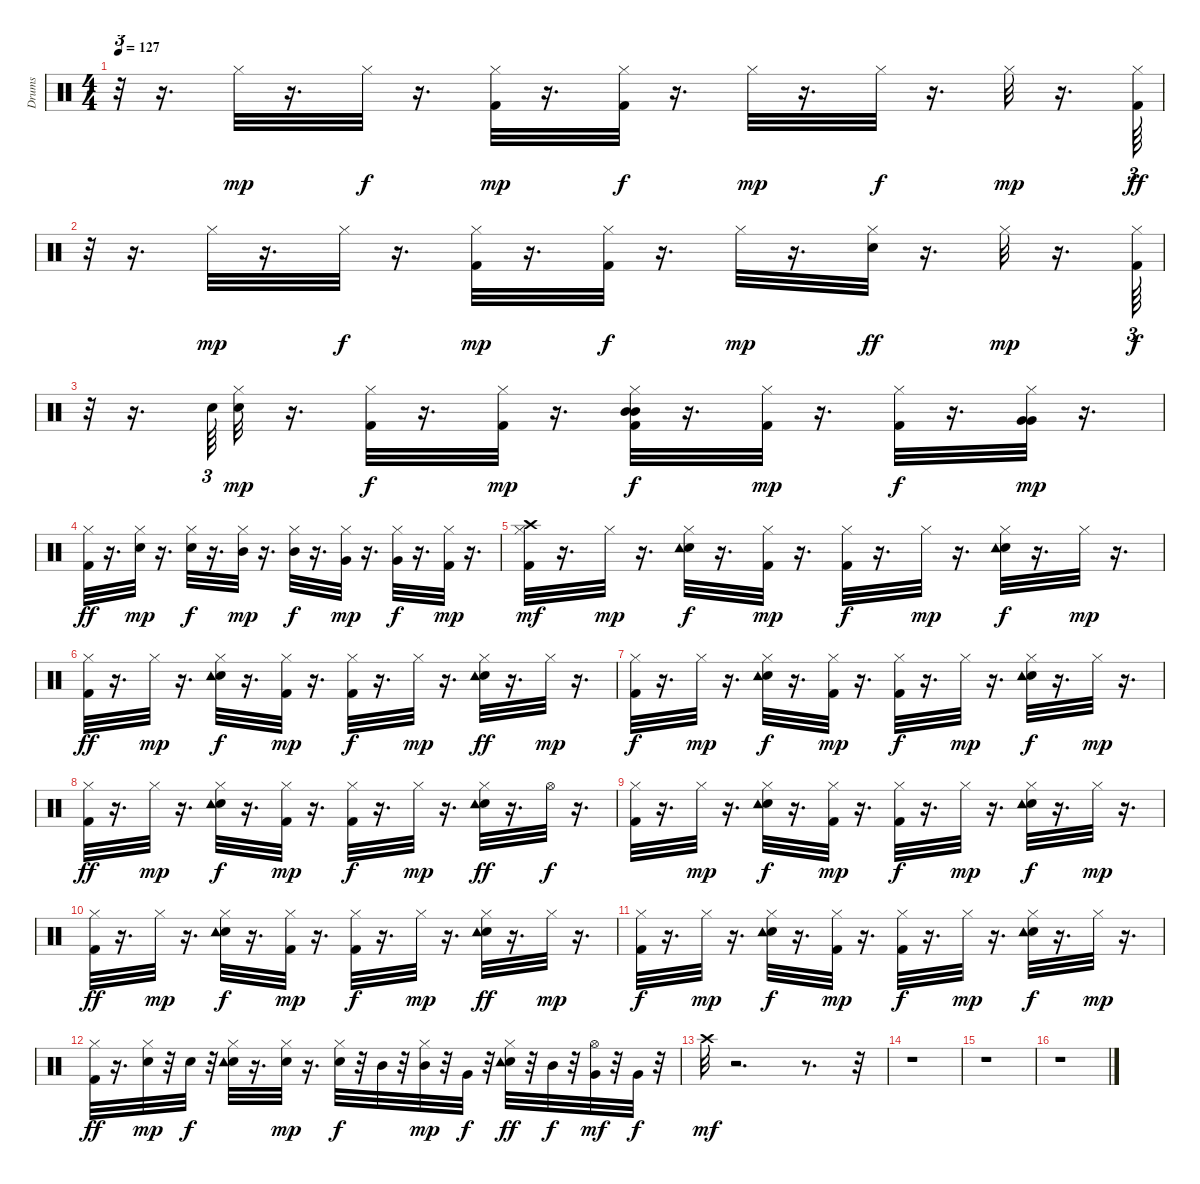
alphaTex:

\track ("Drums               " "Drums     ") {instrument percussion}
\staff {score}
\articulation defaults
\ts (4 4)
\tempo 127
\clef neutral
\ks c
r.32{tu (3 2) dy f} r.16{d} "Hi-Hat (closed)".32{dy mp} r.16{d} "Hi-Hat (closed)".32{dy f} r.16{d} ("Kick (hit) 2" "Hi-Hat (closed)").32{dy mp} r.16{d} ("Kick (hit) 2" "Hi-Hat (closed)").32{dy f} r.16{d} "Hi-Hat (closed)".32{dy mp} r.16{d} "Hi-Hat (closed)".32{dy f} r.16{d} "Hi-Hat (closed)".32{dy mp} r.16{d} ("Kick (hit) 2" "Hi-Hat (closed)").64{tu (3 2) dy ff} |
r.32{tu (3 2)} r.16{d} "Hi-Hat (closed)".32{dy mp} r.16{d} "Hi-Hat (closed)".32{dy f} r.16{d} ("Kick (hit) 2" "Hi-Hat (closed)").32{dy mp} r.16{d} ("Kick (hit) 2" "Hi-Hat (closed)").32{dy f} r.16{d} "Hi-Hat (closed)".32{dy mp} r.16{d} ("Snare (hit) 2" "Hi-Hat (closed)").32{dy ff} r.16{d} "Hi-Hat (closed)".32{dy mp} r.16{d} ("Kick (hit) 2" "Hi-Hat (closed)").64{tu (3 2) dy f} |
r.32{tu (3 2)} r.16{d} "Snare (hit) 2".64{tu (3 2)} ("Snare (hit) 2" "Hi-Hat (closed)").32{dy mp} r.16{d} ("Hi-Hat (closed)" "Kick (hit) 2").32{dy f} r.16{d} ("Kick (hit) 2" "Hi-Hat (closed)").32{dy mp} r.16{d} ("Kick (hit) 2" "Mid Tom (hit)" "Hi-Hat (closed)" "Mid Tom (hit)").32{dy f} r.16{d} ("Kick (hit) 2" "Hi-Hat (closed)").32{dy mp} r.16{d} ("Kick (hit) 2" "Hi-Hat (closed)").32{dy f} r.16{d} ("Very Low Tom (hit)" "Hi-Hat (closed)" "Very Low Tom (hit)").32{dy mp} r.16{d} |
("Kick (hit) 2" "Hi-Hat (closed)").32{dy ff} r.16{d} ("Snare (hit) 2" "Hi-Hat (closed)").32{dy mp} r.16{d} ("Snare (hit) 2" "Hi-Hat (closed)").32{dy f} r.16{d} ("Mid Tom (hit)" "Hi-Hat (closed)").32{dy mp} r.16{d} ("Hi-Hat (closed)" "Mid Tom (hit)").32{dy f} r.16{d} ("Hi-Hat (closed)" "Very Low Tom (hit)").32{dy mp} r.16{d} ("Very Low Tom (hit)" "Hi-Hat (closed)").32{dy f} r.16{d} ("Kick (hit) 2" "Hi-Hat (closed)").32{dy mp} r.16{d} |
("Kick (hit) 2" "Hi-Hat (closed)" "Crash high (hit)").32{dy mf} r.16{d} "Hi-Hat (closed)".32{dy mp} r.16{d} ("Snare (hit) 2" "Tambourine (hit)" "Hi-Hat (closed)").32{dy f} r.16{d} ("Kick (hit) 2" "Hi-Hat (closed)").32{dy mp} r.16{d} ("Kick (hit) 2" "Hi-Hat (closed)").32{dy f} r.16{d} "Hi-Hat (closed)".32{dy mp} r.16{d} ("Snare (hit) 2" "Tambourine (hit)" "Hi-Hat (closed)").32{dy f} r.16{d} "Hi-Hat (closed)".32{dy mp} r.16{d} |
("Hi-Hat (closed)" "Kick (hit) 2").32{dy ff} r.16{d} "Hi-Hat (closed)".32{dy mp} r.16{d} ("Snare (hit) 2" "Tambourine (hit)" "Hi-Hat (closed)").32{dy f} r.16{d} ("Kick (hit) 2" "Hi-Hat (closed)").32{dy mp} r.16{d} ("Kick (hit) 2" "Hi-Hat (closed)").32{dy f} r.16{d} "Hi-Hat (closed)".32{dy mp} r.16{d} ("Snare (hit) 2" "Tambourine (hit)" "Hi-Hat (closed)").32{dy ff} r.16{d} "Hi-Hat (closed)".32{dy mp} r.16{d} |
("Kick (hit) 2" "Hi-Hat (closed)").32{dy f} r.16{d} "Hi-Hat (closed)".32{dy mp} r.16{d} ("Snare (hit) 2" "Hi-Hat (closed)" "Tambourine (hit)").32{dy f} r.16{d} ("Hi-Hat (closed)" "Kick (hit) 2").32{dy mp} r.16{d} ("Kick (hit) 2" "Hi-Hat (closed)").32{dy f} r.16{d} "Hi-Hat (closed)".32{dy mp} r.16{d} ("Snare (hit) 2" "Hi-Hat (closed)" "Tambourine (hit)").32{dy f} r.16{d} "Hi-Hat (closed)".32{dy mp} r.16{d} |
("Kick (hit) 2" "Hi-Hat (closed)").32{dy ff} r.16{d} "Hi-Hat (closed)".32{dy mp} r.16{d} ("Snare (hit) 2" "Tambourine (hit)" "Hi-Hat (closed)").32{dy f} r.16{d} ("Kick (hit) 2" "Hi-Hat (closed)").32{dy mp} r.16{d} ("Kick (hit) 2" "Hi-Hat (closed)").32{dy f} r.16{d} "Hi-Hat (closed)".32{dy mp} r.16{d} ("Hi-Hat (closed)" "Snare (hit) 2" "Tambourine (hit)").32{dy ff} r.16{d} "Hi-Hat (open)".32{dy f} r.16{d} |
("Kick (hit) 2" "Hi-Hat (closed)").32 r.16{d} "Hi-Hat (closed)".32{dy mp} r.16{d} ("Snare (hit) 2" "Tambourine (hit)" "Hi-Hat (closed)").32{dy f} r.16{d} ("Kick (hit) 2" "Hi-Hat (closed)").32{dy mp} r.16{d} ("Kick (hit) 2" "Hi-Hat (closed)").32{dy f} r.16{d} "Hi-Hat (closed)".32{dy mp} r.16{d} ("Snare (hit) 2" "Hi-Hat (closed)" "Tambourine (hit)").32{dy f} r.16{d} "Hi-Hat (closed)".32{dy mp} r.16{d} |
("Kick (hit) 2" "Hi-Hat (closed)").32{dy ff} r.16{d} "Hi-Hat (closed)".32{dy mp} r.16{d} ("Snare (hit) 2" "Tambourine (hit)" "Hi-Hat (closed)").32{dy f} r.16{d} ("Kick (hit) 2" "Hi-Hat (closed)").32{dy mp} r.16{d} ("Kick (hit) 2" "Hi-Hat (closed)").32{dy f} r.16{d} "Hi-Hat (closed)".32{dy mp} r.16{d} ("Snare (hit) 2" "Tambourine (hit)" "Hi-Hat (closed)").32{dy ff} r.16{d} "Hi-Hat (closed)".32{dy mp} r.16{d} |
("Kick (hit) 2" "Hi-Hat (closed)").32{dy f} r.16{d} "Hi-Hat (closed)".32{dy mp} r.16{d} ("Snare (hit) 2" "Tambourine (hit)" "Hi-Hat (closed)").32{dy f} r.16{d} ("Kick (hit) 2" "Hi-Hat (closed)").32{dy mp} r.16{d} ("Hi-Hat (closed)" "Kick (hit) 2").32{dy f} r.16{d} "Hi-Hat (closed)".32{dy mp} r.16{d} ("Snare (hit) 2" "Tambourine (hit)" "Hi-Hat (closed)").32{dy f} r.16{d} "Hi-Hat (closed)".32{dy mp} r.16{d} |
("Kick (hit) 2" "Hi-Hat (closed)").32{dy ff} r.16{d} ("Snare (hit) 2" "Hi-Hat (closed)").32{dy mp} r.32 "Snare (hit) 2".32{dy f} r.32 ("Snare (hit) 2" "Tambourine (hit)" "Hi-Hat (closed)").32 r.16{d} ("Snare (hit) 2" "Hi-Hat (closed)").32{dy mp} r.16{d} ("Snare (hit) 2" "Hi-Hat (closed)").32{dy f} r.32 "Mid Tom (hit)".32 r.32 ("Mid Tom (hit)" "Hi-Hat (closed)").32{dy mp} r.32 "Very Low Tom (hit)".32{dy f} r.32 ("Snare (hit) 2" "Hi-Hat (closed)" "Tambourine (hit)").32{dy ff} r.32 "Mid Tom (hit)".32{dy f} r.32 ("Hi-Hat (open)" "Very Low Tom (hit)").32{dy mf} r.32 "Very Low Tom (hit)".32{dy f} r.32 |
"Crash high (hit)".32{dy mf} r.2{d} r.8{d} r.32 |
r.1 |
r.1 |
r.1
